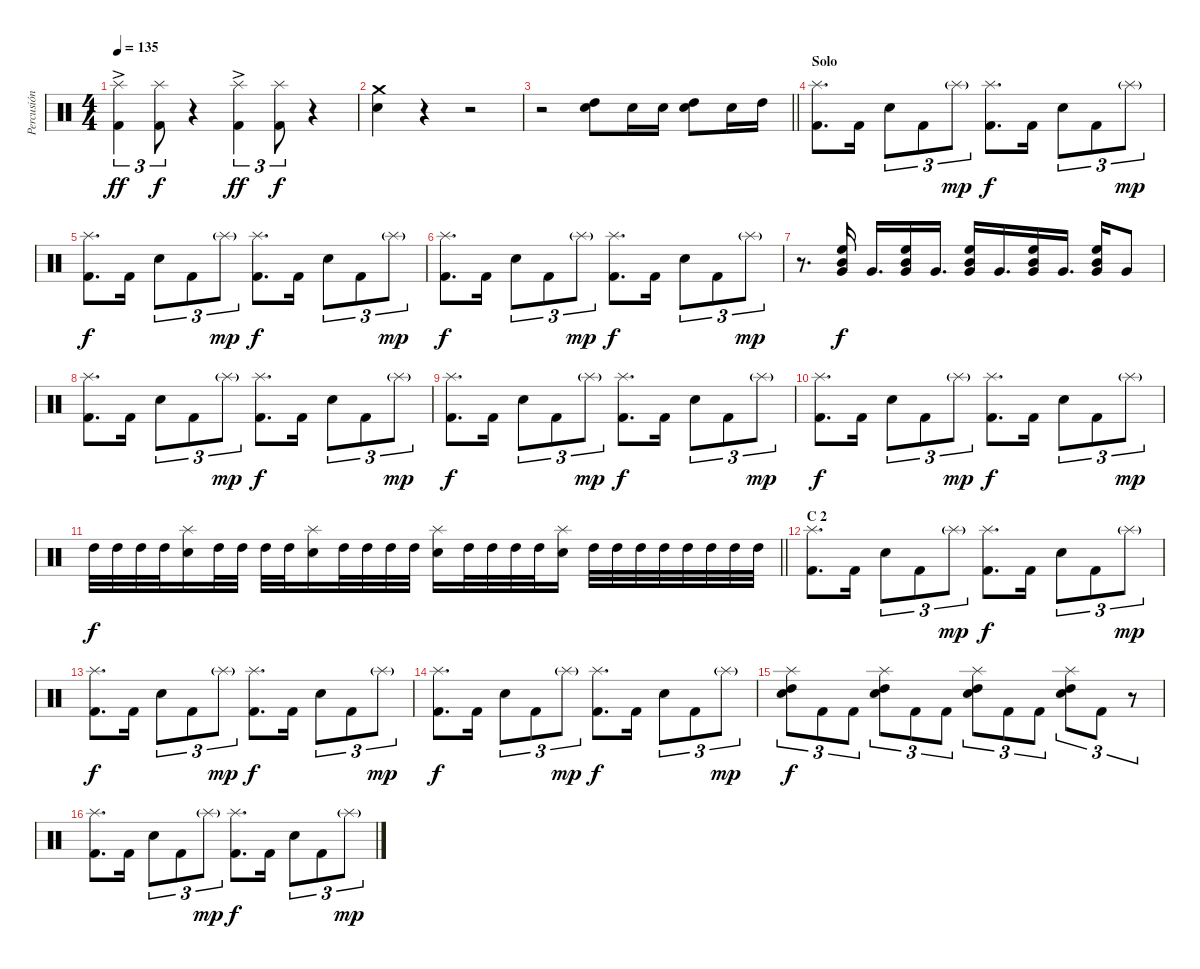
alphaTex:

\track ("Percusión" "Percusión") {instrument percussion}
\staff {score}
\articulation defaults
\ts (4 4)
\tempo 135
\clef neutral
\ks c
("Splash (hit)"{ac} "Kick (hit) 2"{ac}).4{tu (3 2) dy ff} ("Splash (hit)" "Kick (hit) 2").8{tu (3 2) dy f} r.4 ("Splash (hit)"{ac} "Kick (hit) 2"{ac}).4{tu (3 2) dy ff} ("Splash (hit)" "Kick (hit) 2").8{tu (3 2) dy f} r.4 |
("Crash medium (hit)" "Snare (hit) 2").4 r.4 r.2 |
\barLineRight lightlight
r.2 ("Snare (hit) 2" "High Tom (hit)").8 "Snare (hit) 2".16 "Snare (hit) 2".16 ("Snare (hit) 2" "High Tom (hit)").8 "Snare (hit) 2".16 "High Tom (hit)".16 |
\section ("" "Solo")
("Splash (hit)" "Kick (hit) 2").8{d} "Kick (hit) 2".16 "Snare (hit) 2".8{tu (3 2)} "Kick (hit) 2".8{tu (3 2)} "Splash (hit)"{g}.8{tu (3 2) dy mp} ("Splash (hit)" "Kick (hit) 2").8{d dy f} "Kick (hit) 2".16 "Snare (hit) 2".8{tu (3 2)} "Kick (hit) 2".8{tu (3 2)} "Splash (hit)"{g}.8{tu (3 2) dy mp} |
("Splash (hit)" "Kick (hit) 2").8{d dy f} "Kick (hit) 2".16 "Snare (hit) 2".8{tu (3 2)} "Kick (hit) 2".8{tu (3 2)} "Splash (hit)"{g}.8{tu (3 2) dy mp} ("Splash (hit)" "Kick (hit) 2").8{d dy f} "Kick (hit) 2".16 "Snare (hit) 2".8{tu (3 2)} "Kick (hit) 2".8{tu (3 2)} "Splash (hit)"{g}.8{tu (3 2) dy mp} |
("Splash (hit)" "Kick (hit) 2").8{d dy f} "Kick (hit) 2".16 "Snare (hit) 2".8{tu (3 2)} "Kick (hit) 2".8{tu (3 2)} "Splash (hit)"{g}.8{tu (3 2) dy mp} ("Splash (hit)" "Kick (hit) 2").8{d dy f} "Kick (hit) 2".16 "Snare (hit) 2".8{tu (3 2)} "Kick (hit) 2".8{tu (3 2)} "Splash (hit)"{g}.8{tu (3 2) dy mp} |
r.8{d} ("Mid Tom (hit)" "High Floor Tom (hit)" "Very Low Tom (hit)").16{dy f} "Very Low Tom (hit)".16{d} ("Mid Tom (hit)" "High Floor Tom (hit)" "Very Low Tom (hit)").16 "Very Low Tom (hit)".16{d} ("Mid Tom (hit)" "High Floor Tom (hit)" "Very Low Tom (hit)").16 "Very Low Tom (hit)".16{d} ("Mid Tom (hit)" "High Floor Tom (hit)" "Very Low Tom (hit)").16 "Very Low Tom (hit)".16{d} ("Mid Tom (hit)" "High Floor Tom (hit)" "Very Low Tom (hit)").16 "Very Low Tom (hit)".8 |
("Splash (hit)" "Kick (hit) 2").8{d} "Kick (hit) 2".16 "Snare (hit) 2".8{tu (3 2)} "Kick (hit) 2".8{tu (3 2)} "Splash (hit)"{g}.8{tu (3 2) dy mp} ("Splash (hit)" "Kick (hit) 2").8{d dy f} "Kick (hit) 2".16 "Snare (hit) 2".8{tu (3 2)} "Kick (hit) 2".8{tu (3 2)} "Splash (hit)"{g}.8{tu (3 2) dy mp} |
("Splash (hit)" "Kick (hit) 2").8{d dy f} "Kick (hit) 2".16 "Snare (hit) 2".8{tu (3 2)} "Kick (hit) 2".8{tu (3 2)} "Splash (hit)"{g}.8{tu (3 2) dy mp} ("Splash (hit)" "Kick (hit) 2").8{d dy f} "Kick (hit) 2".16 "Snare (hit) 2".8{tu (3 2)} "Kick (hit) 2".8{tu (3 2)} "Splash (hit)"{g}.8{tu (3 2) dy mp} |
("Splash (hit)" "Kick (hit) 2").8{d dy f} "Kick (hit) 2".16 "Snare (hit) 2".8{tu (3 2)} "Kick (hit) 2".8{tu (3 2)} "Splash (hit)"{g}.8{tu (3 2) dy mp} ("Splash (hit)" "Kick (hit) 2").8{d dy f} "Kick (hit) 2".16 "Snare (hit) 2".8{tu (3 2)} "Kick (hit) 2".8{tu (3 2)} "Splash (hit)"{g}.8{tu (3 2) dy mp} |
\barLineRight lightlight "High Tom (hit)".32{dy f} "High Tom (hit)".32 "High Tom (hit)".32 "High Tom (hit)".32
("Splash (hit)" "Snare (hit) 2").16 "High Tom (hit)".32 "High Tom (hit)".32 "High Tom (hit)".32 "High Tom (hit)".32 ("Splash (hit)" "Snare (hit) 2").16 "High Tom (hit)".32 "High Tom (hit)".32 "High Tom (hit)".32 "High Tom (hit)".32 ("Splash (hit)" "Snare (hit) 2").16 "High Tom (hit)".32 "High Tom (hit)".32 "High Tom (hit)".32 "High Tom (hit)".32 ("Splash (hit)" "Snare (hit) 2").16 "High Tom (hit)".32 "High Tom (hit)".32 "High Tom (hit)".32 "High Tom (hit)".32 "High Tom (hit)".32 "High Tom (hit)".32 "High Tom (hit)".32 "High Tom (hit)".32 |
\section ("" "C 2")
("Splash (hit)" "Kick (hit) 2").8{d} "Kick (hit) 2".16 "Snare (hit) 2".8{tu (3 2)} "Kick (hit) 2".8{tu (3 2)} "Splash (hit)"{g}.8{tu (3 2) dy mp} ("Splash (hit)" "Kick (hit) 2").8{d dy f} "Kick (hit) 2".16 "Snare (hit) 2".8{tu (3 2)} "Kick (hit) 2".8{tu (3 2)} "Splash (hit)"{g}.8{tu (3 2) dy mp} |
("Splash (hit)" "Kick (hit) 2").8{d dy f} "Kick (hit) 2".16 "Snare (hit) 2".8{tu (3 2)} "Kick (hit) 2".8{tu (3 2)} "Splash (hit)"{g}.8{tu (3 2) dy mp} ("Splash (hit)" "Kick (hit) 2").8{d dy f} "Kick (hit) 2".16 "Snare (hit) 2".8{tu (3 2)} "Kick (hit) 2".8{tu (3 2)} "Splash (hit)"{g}.8{tu (3 2) dy mp} |
("Splash (hit)" "Kick (hit) 2").8{d dy f} "Kick (hit) 2".16 "Snare (hit) 2".8{tu (3 2)} "Kick (hit) 2".8{tu (3 2)} "Splash (hit)"{g}.8{tu (3 2) dy mp} ("Splash (hit)" "Kick (hit) 2").8{d dy f} "Kick (hit) 2".16 "Snare (hit) 2".8{tu (3 2)} "Kick (hit) 2".8{tu (3 2)} "Splash (hit)"{g}.8{tu (3 2) dy mp} |
("Splash (hit)" "High Tom (hit)" "Snare (hit) 2").8{tu (3 2) dy f} "Kick (hit) 2".8{tu (3 2)} "Kick (hit) 2".8{tu (3 2)} ("Splash (hit)" "High Tom (hit)" "Snare (hit) 2").8{tu (3 2)} "Kick (hit) 2".8{tu (3 2)} "Kick (hit) 2".8{tu (3 2)} ("Splash (hit)" "High Tom (hit)" "Snare (hit) 2").8{tu (3 2)} "Kick (hit) 2".8{tu (3 2)} "Kick (hit) 2".8{tu (3 2)} ("Splash (hit)" "High Tom (hit)" "Snare (hit) 2").8{tu (3 2)} "Kick (hit) 2".8{tu (3 2)} r.8{tu (3 2)} |
("Splash (hit)" "Kick (hit) 2").8{d} "Kick (hit) 2".16 "Snare (hit) 2".8{tu (3 2)} "Kick (hit) 2".8{tu (3 2)} "Splash (hit)"{g}.8{tu (3 2) dy mp} ("Splash (hit)" "Kick (hit) 2").8{d dy f} "Kick (hit) 2".16 "Snare (hit) 2".8{tu (3 2)} "Kick (hit) 2".8{tu (3 2)} "Splash (hit)"{g}.8{tu (3 2) dy mp}
